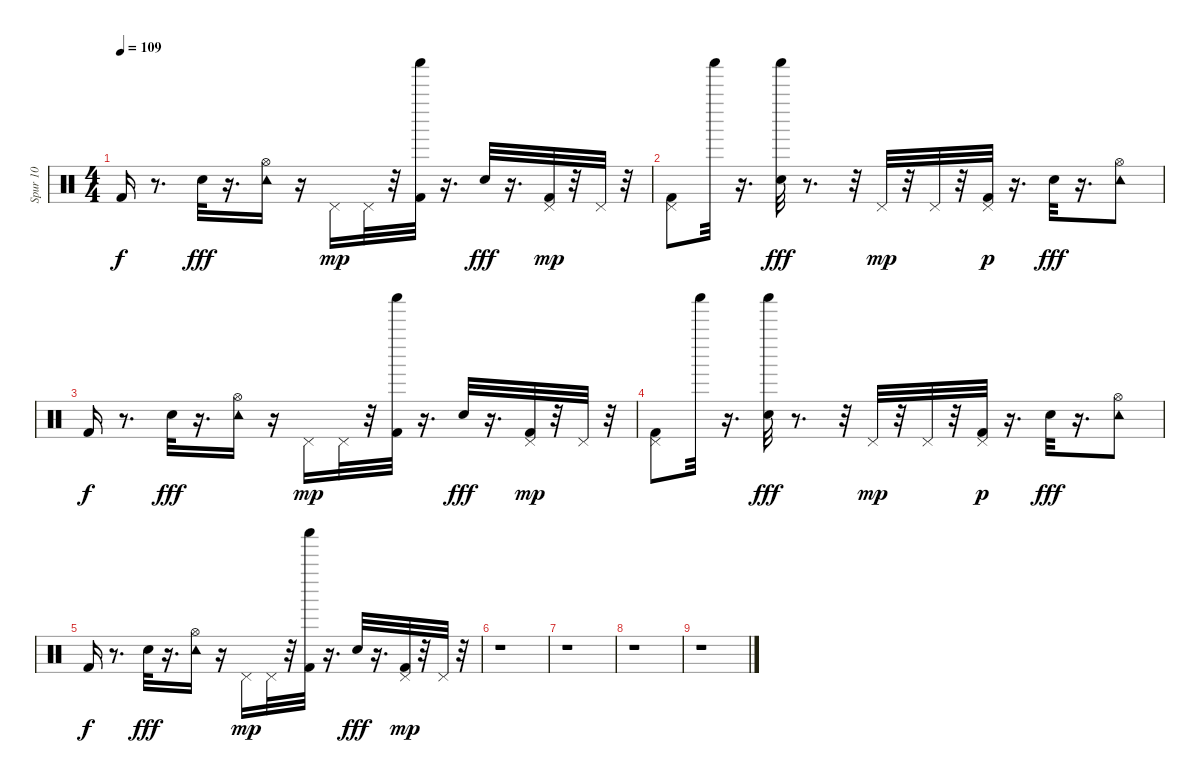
\track ("Spur 10" "Spur 10") {instrument percussion}
\staff {score}
\articulation defaults
\ts (4 4)
\tempo 109
\clef neutral
\ks c "Kick (hit) 2".16{dy f}
r.8{d} "Electric Snare (hit)".32{dy fff} r.16{d} ("Hi-Hat (open)" "Tambourine (hit)").16 r.16 "Pedal Hi-Hat (hit)".16{dy mp} "Pedal Hi-Hat (hit)".32 r.32 ("Shaker (hit)" "Kick (hit) 2").32 r.16{d} "Electric Snare (hit)".32{dy fff} r.16{d} ("Pedal Hi-Hat (hit)" "Kick (hit) 2").32{dy mp} r.32 "Pedal Hi-Hat (hit)".32 r.32 |
("Pedal Hi-Hat (hit)" "Kick (hit) 2").8 "Shaker (hit)".32 r.16{d} ("Shaker (hit)" "Electric Snare (hit)").32{dy fff} r.8{d} r.32 "Pedal Hi-Hat (hit)".32{dy mp} r.32 "Pedal Hi-Hat (hit)".32 r.32 ("Pedal Hi-Hat (hit)" "Kick (hit) 2").32{dy p} r.16{d} "Electric Snare (hit)".32{dy fff} r.16{d} ("Hi-Hat (open)" "Tambourine (hit)").8 |
"Kick (hit) 2".16{dy f} r.8{d} "Electric Snare (hit)".32{dy fff} r.16{d} ("Hi-Hat (open)" "Tambourine (hit)").16 r.16 "Pedal Hi-Hat (hit)".16{dy mp} "Pedal Hi-Hat (hit)".32 r.32 ("Shaker (hit)" "Kick (hit) 2").32 r.16{d} "Electric Snare (hit)".32{dy fff} r.16{d} ("Pedal Hi-Hat (hit)" "Kick (hit) 2").32{dy mp} r.32 "Pedal Hi-Hat (hit)".32 r.32 |
("Pedal Hi-Hat (hit)" "Kick (hit) 2").8 "Shaker (hit)".32 r.16{d} ("Shaker (hit)" "Electric Snare (hit)").32{dy fff} r.8{d} r.32 "Pedal Hi-Hat (hit)".32{dy mp} r.32 "Pedal Hi-Hat (hit)".32 r.32 ("Pedal Hi-Hat (hit)" "Kick (hit) 2").32{dy p} r.16{d} "Electric Snare (hit)".32{dy fff} r.16{d} ("Hi-Hat (open)" "Tambourine (hit)").8 |
"Kick (hit) 2".16{dy f} r.8{d} "Electric Snare (hit)".32{dy fff} r.16{d} ("Hi-Hat (open)" "Tambourine (hit)").16 r.16 "Pedal Hi-Hat (hit)".16{dy mp} "Pedal Hi-Hat (hit)".32 r.32 ("Shaker (hit)" "Kick (hit) 2").32 r.16{d} "Electric Snare (hit)".32{dy fff} r.16{d} ("Pedal Hi-Hat (hit)" "Kick (hit) 2").32{dy mp} r.32 "Pedal Hi-Hat (hit)".32 r.32 |
r.1 |
r.1 |
r.1 |
r.1
